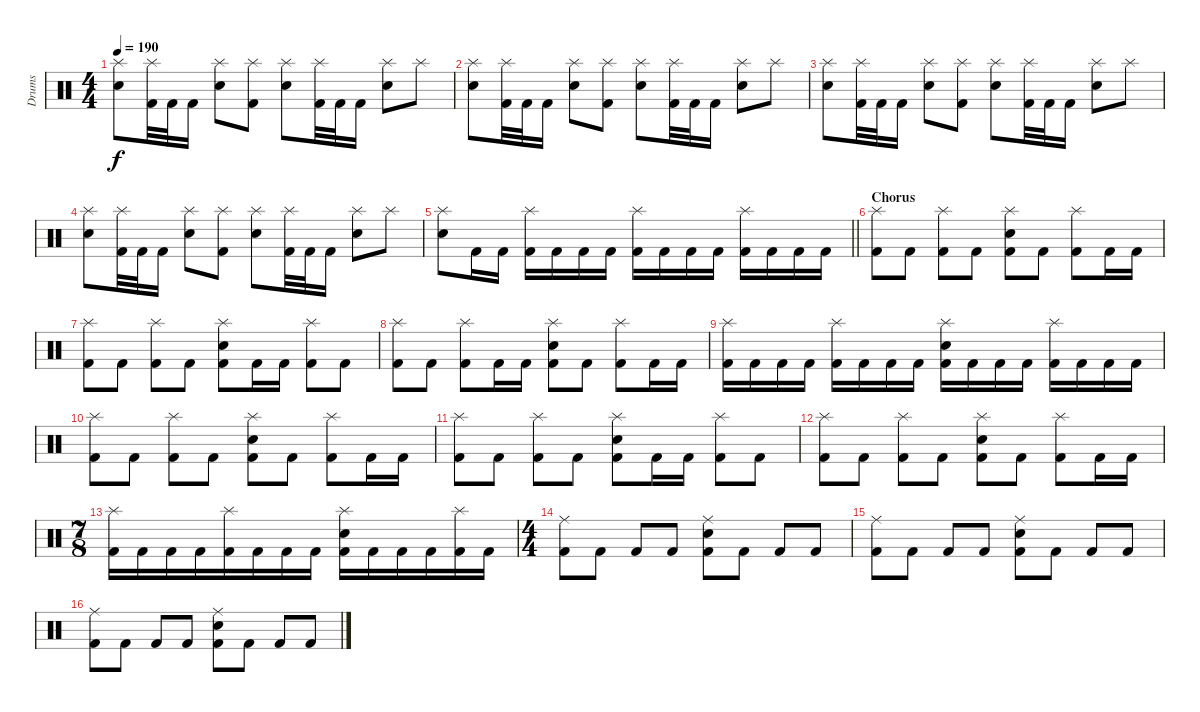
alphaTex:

\track ("Drums" "Drums") {instrument percussion}
\staff {score}
\articulation defaults
\ts (4 4)
\tempo 190
\clef neutral
\ks c
("Splash (hit)" "Snare (hit) 2").8{dy f} ("Splash (hit)" "Kick (hit) 2").32 "Kick (hit) 2".32 "Kick (hit) 2".16 ("Splash (hit)" "Snare (hit) 2").8 ("Splash (hit)" "Kick (hit) 2").8 ("Splash (hit)" "Snare (hit) 2").8 ("Splash (hit)" "Kick (hit) 2").32 "Kick (hit) 2".32 "Kick (hit) 2".16 ("Splash (hit)" "Snare (hit) 2").8 "Splash (hit)".8 |
("Splash (hit)" "Snare (hit) 2").8 ("Splash (hit)" "Kick (hit) 2").32 "Kick (hit) 2".32 "Kick (hit) 2".16 ("Splash (hit)" "Snare (hit) 2").8 ("Splash (hit)" "Kick (hit) 2").8 ("Splash (hit)" "Snare (hit) 2").8 ("Splash (hit)" "Kick (hit) 2").32 "Kick (hit) 2".32 "Kick (hit) 2".16 ("Splash (hit)" "Snare (hit) 2").8 "Splash (hit)".8 |
("Splash (hit)" "Snare (hit) 2").8 ("Splash (hit)" "Kick (hit) 2").32 "Kick (hit) 2".32 "Kick (hit) 2".16 ("Splash (hit)" "Snare (hit) 2").8 ("Splash (hit)" "Kick (hit) 2").8 ("Splash (hit)" "Snare (hit) 2").8 ("Splash (hit)" "Kick (hit) 2").32 "Kick (hit) 2".32 "Kick (hit) 2".16 ("Splash (hit)" "Snare (hit) 2").8 "Splash (hit)".8 |
("Splash (hit)" "Snare (hit) 2").8 ("Splash (hit)" "Kick (hit) 2").32 "Kick (hit) 2".32 "Kick (hit) 2".16 ("Splash (hit)" "Snare (hit) 2").8 ("Splash (hit)" "Kick (hit) 2").8 ("Splash (hit)" "Snare (hit) 2").8 ("Splash (hit)" "Kick (hit) 2").32 "Kick (hit) 2".32 "Kick (hit) 2".16 ("Splash (hit)" "Snare (hit) 2").8 "Splash (hit)".8 |
\barLineRight lightlight
("Splash (hit)" "Snare (hit) 2").8 "Kick (hit) 2".16 "Kick (hit) 2".16 ("Splash (hit)" "Kick (hit) 2").16 "Kick (hit) 2".16 "Kick (hit) 2".16 "Kick (hit) 2".16 ("Splash (hit)" "Kick (hit) 2").16 "Kick (hit) 2".16 "Kick (hit) 2".16 "Kick (hit) 2".16 ("Splash (hit)" "Kick (hit) 2").16 "Kick (hit) 2".16 "Kick (hit) 2".16 "Kick (hit) 2".16 |
\section ("" "Chorus")
("Splash (hit)" "Kick (hit) 2").8 "Kick (hit) 2".8 ("Splash (hit)" "Kick (hit) 2").8 "Kick (hit) 2".8 ("Splash (hit)" "Snare (hit) 2" "Kick (hit) 2").8 "Kick (hit) 2".8 ("Splash (hit)" "Kick (hit) 2").8 "Kick (hit) 2".16 "Kick (hit) 2".16 |
("Splash (hit)" "Kick (hit) 2").8 "Kick (hit) 2".8 ("Splash (hit)" "Kick (hit) 2").8 "Kick (hit) 2".8 ("Splash (hit)" "Snare (hit) 2" "Kick (hit) 2").8 "Kick (hit) 2".16 "Kick (hit) 2".16 ("Splash (hit)" "Kick (hit) 2").8 "Kick (hit) 2".8 |
("Splash (hit)" "Kick (hit) 2").8 "Kick (hit) 2".8 ("Splash (hit)" "Kick (hit) 2").8 "Kick (hit) 2".16 "Kick (hit) 2".16 ("Splash (hit)" "Snare (hit) 2" "Kick (hit) 2").8 "Kick (hit) 2".8 ("Splash (hit)" "Kick (hit) 2").8 "Kick (hit) 2".16 "Kick (hit) 2".16 |
("Splash (hit)" "Kick (hit) 2").16 "Kick (hit) 2".16 "Kick (hit) 2".16 "Kick (hit) 2".16 ("Splash (hit)" "Kick (hit) 2").16 "Kick (hit) 2".16 "Kick (hit) 2".16 "Kick (hit) 2".16 ("Splash (hit)" "Snare (hit) 2" "Kick (hit) 2").16 "Kick (hit) 2".16 "Kick (hit) 2".16 "Kick (hit) 2".16 ("Splash (hit)" "Kick (hit) 2").16 "Kick (hit) 2".16 "Kick (hit) 2".16 "Kick (hit) 2".16 |
("Splash (hit)" "Kick (hit) 2").8 "Kick (hit) 2".8 ("Splash (hit)" "Kick (hit) 2").8 "Kick (hit) 2".8 ("Splash (hit)" "Snare (hit) 2" "Kick (hit) 2").8 "Kick (hit) 2".8 ("Splash (hit)" "Kick (hit) 2").8 "Kick (hit) 2".16 "Kick (hit) 2".16 |
("Splash (hit)" "Kick (hit) 2").8 "Kick (hit) 2".8 ("Splash (hit)" "Kick (hit) 2").8 "Kick (hit) 2".8 ("Splash (hit)" "Snare (hit) 2" "Kick (hit) 2").8 "Kick (hit) 2".16 "Kick (hit) 2".16 ("Splash (hit)" "Kick (hit) 2").8 "Kick (hit) 2".8 |
("Splash (hit)" "Kick (hit) 2").8 "Kick (hit) 2".8 ("Splash (hit)" "Kick (hit) 2").8 "Kick (hit) 2".8 ("Splash (hit)" "Snare (hit) 2" "Kick (hit) 2").8 "Kick (hit) 2".8 ("Splash (hit)" "Kick (hit) 2").8 "Kick (hit) 2".16 "Kick (hit) 2".16 |
\ts (7 8)
("Splash (hit)" "Kick (hit) 2").16 "Kick (hit) 2".16 "Kick (hit) 2".16 "Kick (hit) 2".16 ("Splash (hit)" "Kick (hit) 2").16 "Kick (hit) 2".16 "Kick (hit) 2".16 "Kick (hit) 2".16 ("Splash (hit)" "Snare (hit) 2" "Kick (hit) 2").16 "Kick (hit) 2".16 "Kick (hit) 2".16 "Kick (hit) 2".16 ("Splash (hit)" "Kick (hit) 2").16 "Kick (hit) 2".16 |
\ts (4 4)
("Ride (middle)" "Kick (hit) 2").8 "Kick (hit) 2".8 "Kick (hit) 2".8 "Kick (hit) 2".8 ("Ride (middle)" "Snare (hit) 2" "Kick (hit) 2").8 "Kick (hit) 2".8 "Kick (hit) 2".8 "Kick (hit) 2".8 |
("Ride (middle)" "Kick (hit) 2").8 "Kick (hit) 2".8 "Kick (hit) 2".8 "Kick (hit) 2".8 ("Ride (middle)" "Snare (hit) 2" "Kick (hit) 2").8 "Kick (hit) 2".8 "Kick (hit) 2".8 "Kick (hit) 2".8 |
("Ride (middle)" "Kick (hit) 2").8 "Kick (hit) 2".8 "Kick (hit) 2".8 "Kick (hit) 2".8 ("Ride (middle)" "Snare (hit) 2" "Kick (hit) 2").8 "Kick (hit) 2".8 "Kick (hit) 2".8 "Kick (hit) 2".8
